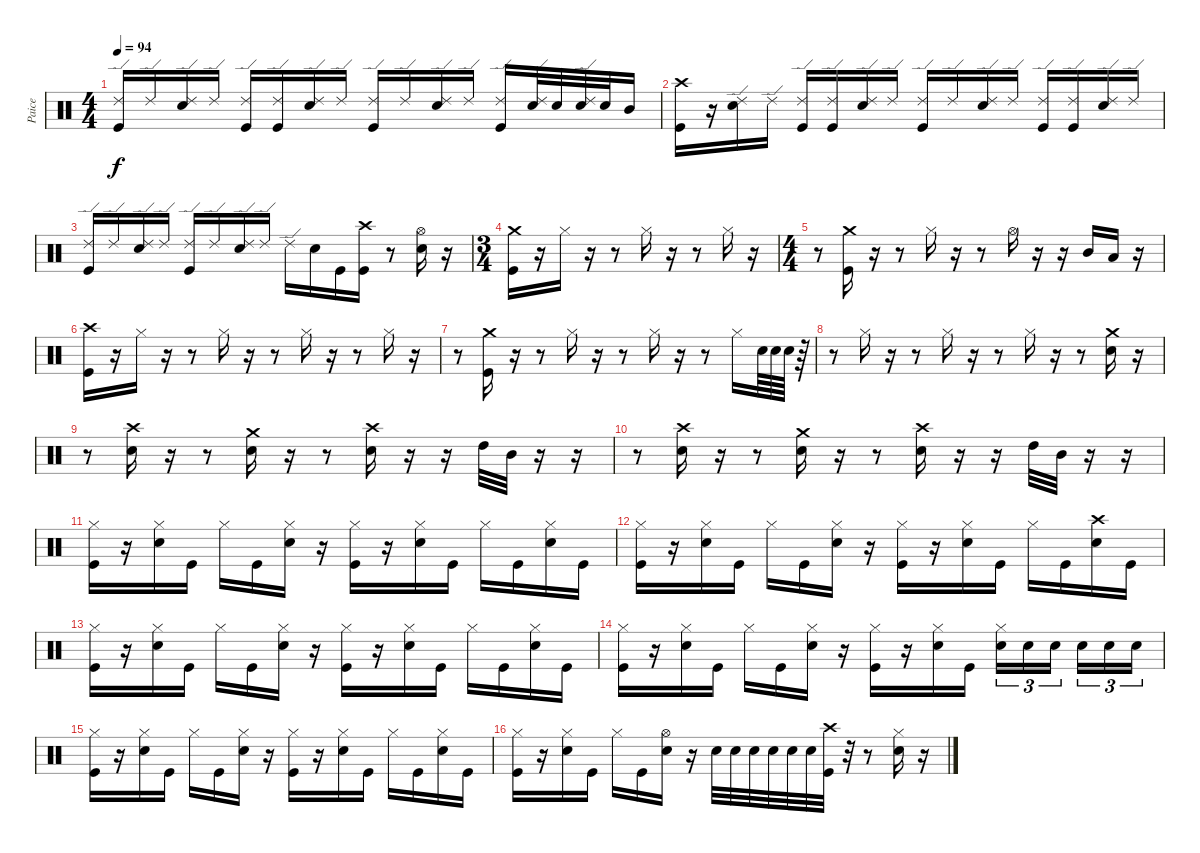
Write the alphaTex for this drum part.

\track ("Paice" "Paice") {instrument percussion}
\staff {score}
\articulation defaults
\ts (4 4)
\tempo 94
\clef neutral
\ks c
("Ride (edge) 2" "Kick (hit)").16{dy f} "Ride (edge) 2".16 ("Ride (edge) 2" "Snare (hit) 2").16 "Ride (edge) 2".16 ("Ride (edge) 2" "Kick (hit)").16 ("Ride (edge) 2" "Kick (hit)").16 ("Ride (edge) 2" "Snare (hit) 2").16 "Ride (edge) 2".16 ("Ride (edge) 2" "Kick (hit)").16 "Ride (edge) 2".16 ("Ride (edge) 2" "Snare (hit) 2").16 "Ride (edge) 2".16 ("Ride (edge) 2" "Kick (hit)").16 ("Ride (edge) 2" "Snare (hit) 2").32 "Snare (hit) 2".32 ("Ride (edge) 2" "Snare (hit) 2").32 "Snare (hit) 2".32 "Mid Tom (hit)".16 |
("Crash high (hit)" "Kick (hit)").16 r.16 ("Ride (edge) 2" "Snare (hit) 2").16 "Ride (edge) 2".16 ("Ride (edge) 2" "Kick (hit)").16 ("Ride (edge) 2" "Kick (hit)").16 ("Ride (edge) 2" "Snare (hit) 2").16 "Ride (edge) 2".16 ("Ride (edge) 2" "Kick (hit)").16 "Ride (edge) 2".16 ("Ride (edge) 2" "Snare (hit) 2").16 "Ride (edge) 2".16 ("Ride (edge) 2" "Kick (hit)").16 ("Ride (edge) 2" "Kick (hit)").16 ("Ride (edge) 2" "Snare (hit) 2").16 "Ride (edge) 2".16 |
("Ride (edge) 2" "Kick (hit)").16 "Ride (edge) 2".16 ("Ride (edge) 2" "Snare (hit) 2").16 "Ride (edge) 2".16 ("Ride (edge) 2" "Kick (hit)").16 "Ride (edge) 2".16 ("Ride (edge) 2" "Snare (hit) 2").16 "Ride (edge) 2".16 "Ride (edge) 2".16 "Snare (hit) 2".16 "Kick (hit)".16 ("Crash high (hit)" "Kick (hit)").16 r.8 ("Hi-Hat (open)" "Snare (hit) 2").16 r.16 |
\ts (3 4)
("Crash medium (hit)" "Kick (hit)").16 r.16 "Hi-Hat (closed)".16 r.16 r.8 "Hi-Hat (closed)".16 r.16 r.8 "Hi-Hat (closed)".16 r.16 |
\ts (4 4)
r.8 ("Crash medium (hit)" "Kick (hit)").16 r.16 r.8 "Hi-Hat (closed)".16 r.16 r.8 "Hi-Hat (open)".16 r.16 r.16 "Mid Tom (hit)".16 "Low Tom (hit)".16 r.16 |
("Crash high (hit)" "Kick (hit)").16 r.16 "Hi-Hat (closed)".16 r.16 r.8 "Hi-Hat (closed)".16 r.16 r.8 "Hi-Hat (closed)".16 r.16 r.8 "Hi-Hat (closed)".16 r.16 |
r.8 ("Crash medium (hit)" "Kick (hit)").16 r.16 r.8 "Hi-Hat (closed)".16 r.16 r.8 "Hi-Hat (closed)".16 r.16 r.8 "Hi-Hat (closed)".16 "Snare (hit) 2".64 "Snare (hit) 2".64 "Snare (hit) 2".64 r.64 |
r.8 "Hi-Hat (closed)".16 r.16 r.8 "Hi-Hat (closed)".16 r.16 r.8 "Hi-Hat (closed)".16 r.16 r.8 ("Crash medium (hit)" "Snare (hit) 2").16 r.16 |
r.8 ("Crash high (hit)" "Snare (hit) 2").16 r.16 r.8 ("Crash medium (hit)" "Snare (hit) 2").16 r.16 r.8 ("Crash high (hit)" "Snare (hit) 2").16 r.16 r.16 "High Tom (hit)".32 "Mid Tom (hit)".32 r.16 r.16 |
r.8 ("Crash high (hit)" "Snare (hit) 2").16 r.16 r.8 ("Crash medium (hit)" "Snare (hit) 2").16 r.16 r.8 ("Crash high (hit)" "Snare (hit) 2").16 r.16 r.16 "High Tom (hit)".32 "Mid Tom (hit)".32 r.16 r.16 |
("Hi-Hat (closed)" "Kick (hit)").16 r.16 ("Hi-Hat (closed)" "Snare (hit) 2").16 "Kick (hit)".16 "Hi-Hat (closed)".16 "Kick (hit)".16 ("Hi-Hat (closed)" "Snare (hit) 2").16 r.16 ("Hi-Hat (closed)" "Kick (hit)").16 r.16 ("Hi-Hat (closed)" "Snare (hit) 2").16 "Kick (hit)".16 "Hi-Hat (closed)".16 "Kick (hit)".16 ("Hi-Hat (closed)" "Snare (hit) 2").16 "Kick (hit)".16 |
("Hi-Hat (closed)" "Kick (hit)").16 r.16 ("Hi-Hat (closed)" "Snare (hit) 2").16 "Kick (hit)".16 "Hi-Hat (closed)".16 "Kick (hit)".16 ("Hi-Hat (closed)" "Snare (hit) 2").16 r.16 ("Hi-Hat (closed)" "Kick (hit)").16 r.16 ("Hi-Hat (closed)" "Snare (hit) 2").16 "Kick (hit)".16 "Hi-Hat (closed)".16 "Kick (hit)".16 ("Crash high (hit)" "Snare (hit) 2").16 "Kick (hit)".16 |
("Hi-Hat (closed)" "Kick (hit)").16 r.16 ("Hi-Hat (closed)" "Snare (hit) 2").16 "Kick (hit)".16 "Hi-Hat (closed)".16 "Kick (hit)".16 ("Hi-Hat (closed)" "Snare (hit) 2").16 r.16 ("Hi-Hat (closed)" "Kick (hit)").16 r.16 ("Hi-Hat (closed)" "Snare (hit) 2").16 "Kick (hit)".16 "Hi-Hat (closed)".16 "Kick (hit)".16 ("Hi-Hat (closed)" "Snare (hit) 2").16 "Kick (hit)".16 |
("Hi-Hat (closed)" "Kick (hit)").16 r.16 ("Hi-Hat (closed)" "Snare (hit) 2").16 "Kick (hit)".16 "Hi-Hat (closed)".16 "Kick (hit)".16 ("Hi-Hat (closed)" "Snare (hit) 2").16 r.16 ("Hi-Hat (closed)" "Kick (hit)").16 r.16 ("Hi-Hat (closed)" "Snare (hit) 2").16 "Kick (hit)".16 ("Hi-Hat (closed)" "Snare (hit) 2").16{tu (3 2)} "Snare (hit) 2".16{tu (3 2)} "Snare (hit) 2".16{tu (3 2)} "Snare (hit) 2".16{tu (3 2)} "Snare (hit) 2".16{tu (3 2)} "Snare (hit) 2".16{tu (3 2)} |
("Hi-Hat (closed)" "Kick (hit)").16 r.16 ("Hi-Hat (closed)" "Snare (hit) 2").16 "Kick (hit)".16 "Hi-Hat (closed)".16 "Kick (hit)".16 ("Hi-Hat (closed)" "Snare (hit) 2").16 r.16 ("Hi-Hat (closed)" "Kick (hit)").16 r.16 ("Hi-Hat (closed)" "Snare (hit) 2").16 "Kick (hit)".16 "Hi-Hat (closed)".16 "Kick (hit)".16 ("Hi-Hat (closed)" "Snare (hit) 2").16 "Kick (hit)".16 |
("Hi-Hat (closed)" "Kick (hit)").16 r.16 ("Hi-Hat (closed)" "Snare (hit) 2").16 "Kick (hit)".16 "Hi-Hat (closed)".16 "Kick (hit)".16 ("Hi-Hat (open)" "Snare (hit) 2").16 r.16 "Snare (hit) 2".32 "Snare (hit) 2".32 "Snare (hit) 2".32 "Snare (hit) 2".32 "Snare (hit) 2".32 "Snare (hit) 2".32 ("Crash high (hit)" "Kick (hit)").32 r.32 r.8 ("Snare (hit) 2" "Hi-Hat (closed)").16 r.16
